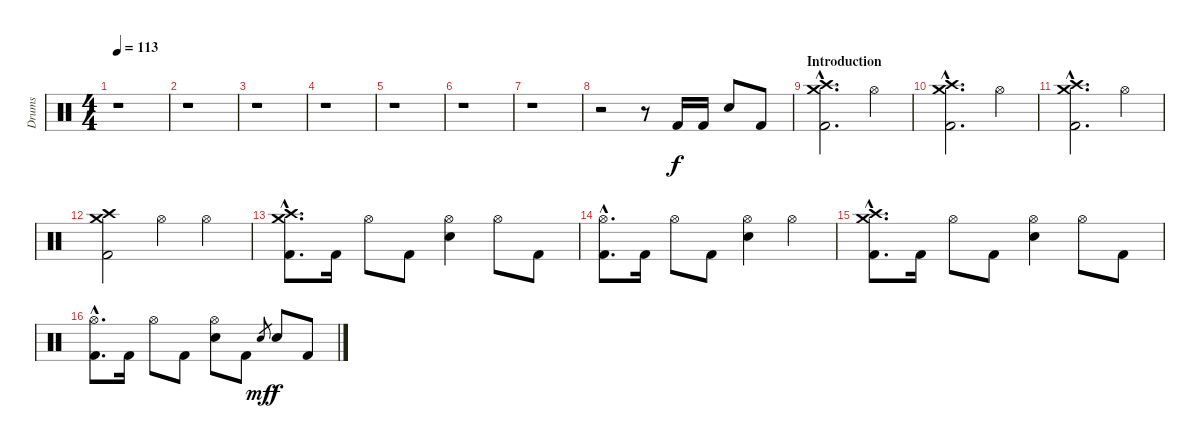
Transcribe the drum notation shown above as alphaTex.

\track ("Drums" "Drums") {instrument percussion}
\staff {score}
\articulation defaults
\ts (4 4)
\tempo 113
\clef neutral
\ks c
r.1{dy f} |
r.1 |
r.1 |
r.1 |
r.1 |
r.1 |
r.1 |
r.2 r.8 "Kick (hit) 2".16 "Kick (hit) 2".16 "Snare (hit) 2".8 "Kick (hit) 2".8 |
\section ("" "Introduction")
("Crash medium (hit)"{hac} "Crash high (hit)"{hac} "Kick (hit) 2"{hac}).2{d} "Hi-Hat (open)".4 |
("Crash medium (hit)"{hac} "Crash high (hit)"{hac} "Kick (hit) 2"{hac}).2{d} "Hi-Hat (open)".4 |
("Crash medium (hit)"{hac} "Crash high (hit)"{hac} "Kick (hit) 2"{hac}).2{d} "Hi-Hat (open)".4 |
("Crash medium (hit)" "Crash high (hit)" "Kick (hit) 2").2 "Hi-Hat (open)".4 "Hi-Hat (open)".4 |
("Crash medium (hit)"{hac} "Crash high (hit)"{hac} "Kick (hit) 2"{hac}).8{d} "Kick (hit) 2".16 "Hi-Hat (open)".8 "Kick (hit) 2".8 ("Hi-Hat (open)" "Snare (hit) 2").4 "Hi-Hat (open)".8 "Kick (hit) 2".8 |
("Hi-Hat (open)"{hac} "Kick (hit) 2"{hac}).8{d} "Kick (hit) 2".16 "Hi-Hat (open)".8 "Kick (hit) 2".8 ("Hi-Hat (open)" "Snare (hit) 2").4 "Hi-Hat (open)".4 |
("Crash medium (hit)"{hac} "Crash high (hit)"{hac} "Kick (hit) 2"{hac}).8{d} "Kick (hit) 2".16 "Hi-Hat (open)".8 "Kick (hit) 2".8 ("Hi-Hat (open)" "Snare (hit) 2").4 "Hi-Hat (open)".8 "Kick (hit) 2".8 |
("Hi-Hat (open)"{hac} "Kick (hit) 2"{hac}).8{d} "Kick (hit) 2".16 "Hi-Hat (open)".8 "Kick (hit) 2".8 ("Hi-Hat (open)" "Snare (hit) 2").8 "Kick (hit) 2".8 "Snare (hit) 2".8{gr dy mf} "Snare (hit) 2".8{dy f} "Kick (hit) 2".8
